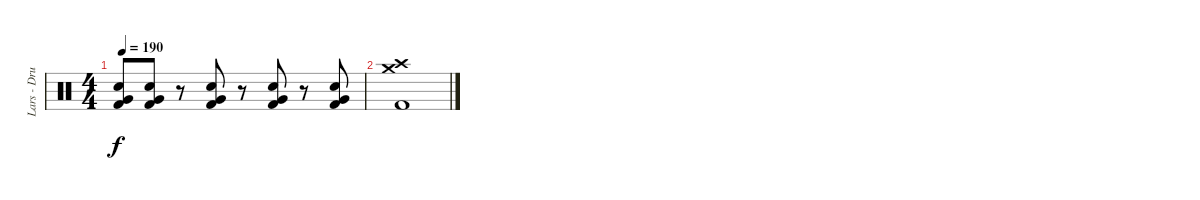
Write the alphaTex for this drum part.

\track ("Lars - Drums" "Lars - Dru") {instrument percussion}
\staff {score}
\articulation defaults
\ts (4 4)
\tempo 190
\clef neutral
\ks c
("Snare (hit) 2" "Very Low Tom (hit)" "Kick (hit) 2").8{dy f} ("Snare (hit) 2" "Very Low Tom (hit)" "Kick (hit) 2").8 r.8 ("Snare (hit) 2" "Very Low Tom (hit)" "Kick (hit) 2").8 r.8 ("Snare (hit) 2" "Very Low Tom (hit)" "Kick (hit) 2").8 r.8 ("Snare (hit) 2" "Very Low Tom (hit)" "Kick (hit) 2").8 |
("Kick (hit) 2" "Crash high (hit)" "Crash medium (hit)").1
